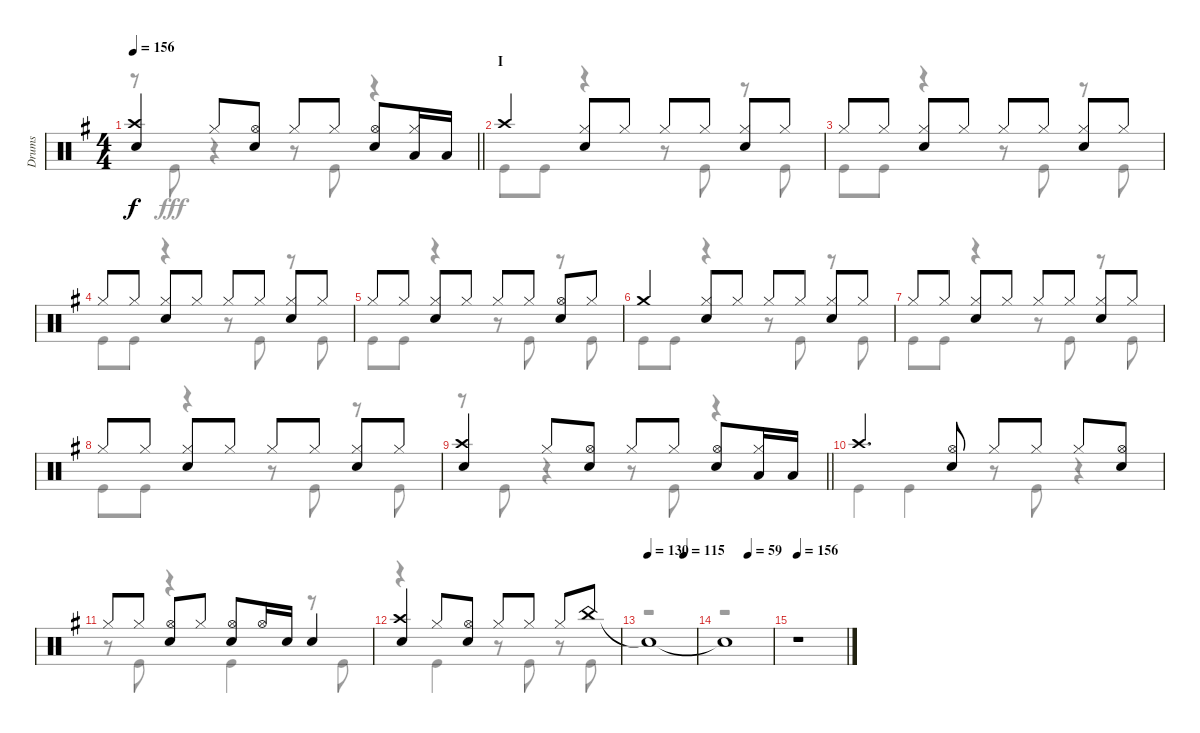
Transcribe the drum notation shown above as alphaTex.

\track ("Drums" "Drums") {instrument percussion}
\staff {score}
\articulation defaults
\voice
\ts (4 4)
\tempo 156
\clef neutral
\barLineRight lightlight
\ks g
("Crash high (hit)" "Snare (hit) 2").4{dy f} "Hi-Hat (closed)".8 ("Hi-Hat (open)" "Snare (hit) 2").8 "Hi-Hat (closed)".8 "Hi-Hat (closed)".8 ("Hi-Hat (open)" "Snare (hit) 2").8 ("Hi-Hat (closed)" "Low Tom (hit)").16 "Low Tom (hit)".16 |
\section ("" "I")
"Crash high (hit)".4 ("Hi-Hat (closed)" "Snare (hit) 2").8 "Hi-Hat (closed)".8 "Hi-Hat (closed)".8 "Hi-Hat (closed)".8 ("Hi-Hat (closed)" "Snare (hit) 2").8 "Hi-Hat (closed)".8 |
"Hi-Hat (closed)".8 "Hi-Hat (closed)".8 ("Hi-Hat (closed)" "Snare (hit) 2").8 "Hi-Hat (closed)".8 "Hi-Hat (closed)".8 "Hi-Hat (closed)".8 ("Hi-Hat (closed)" "Snare (hit) 2").8 "Hi-Hat (closed)".8 |
"Hi-Hat (closed)".8 "Hi-Hat (closed)".8 ("Hi-Hat (closed)" "Snare (hit) 2").8 "Hi-Hat (closed)".8 "Hi-Hat (closed)".8 "Hi-Hat (closed)".8 ("Hi-Hat (closed)" "Snare (hit) 2").8 "Hi-Hat (closed)".8 |
"Hi-Hat (closed)".8 "Hi-Hat (closed)".8 ("Hi-Hat (closed)" "Snare (hit) 2").8 "Hi-Hat (closed)".8 "Hi-Hat (closed)".8 "Hi-Hat (closed)".8 ("Hi-Hat (open)" "Snare (hit) 2").8 "Hi-Hat (closed)".8 |
"Crash medium (hit)".4 ("Hi-Hat (closed)" "Snare (hit) 2").8 "Hi-Hat (closed)".8 "Hi-Hat (closed)".8 "Hi-Hat (closed)".8 ("Hi-Hat (closed)" "Snare (hit) 2").8 "Hi-Hat (closed)".8 |
"Hi-Hat (closed)".8 "Hi-Hat (closed)".8 ("Hi-Hat (closed)" "Snare (hit) 2").8 "Hi-Hat (closed)".8 "Hi-Hat (closed)".8 "Hi-Hat (closed)".8 ("Hi-Hat (closed)" "Snare (hit) 2").8 "Hi-Hat (closed)".8 |
"Hi-Hat (closed)".8 "Hi-Hat (closed)".8 ("Hi-Hat (closed)" "Snare (hit) 2").8 "Hi-Hat (closed)".8 "Hi-Hat (closed)".8 "Hi-Hat (closed)".8 ("Hi-Hat (closed)" "Snare (hit) 2").8 "Hi-Hat (closed)".8 |
\barLineRight lightlight
("Crash high (hit)" "Snare (hit) 2").4 "Hi-Hat (closed)".8 ("Hi-Hat (open)" "Snare (hit) 2").8 "Hi-Hat (closed)".8 "Hi-Hat (closed)".8 ("Hi-Hat (open)" "Snare (hit) 2").8 ("Hi-Hat (closed)" "Low Tom (hit)").16 "Low Tom (hit)".16 |
"Crash high (hit)".4{d} ("Hi-Hat (open)" "Snare (hit) 2").8 "Hi-Hat (closed)".8 "Hi-Hat (closed)".8 "Hi-Hat (closed)".8 ("Hi-Hat (open)" "Snare (hit) 2").8 |
"Hi-Hat (closed)".8 "Hi-Hat (closed)".8 ("Hi-Hat (open)" "Snare (hit) 2").8 "Hi-Hat (closed)".8 ("Hi-Hat (open)" "Snare (hit) 2").8 "Hi-Hat (open)".16 "Snare (hit) 2".16 "Snare (hit) 2".4 |
("Crash high (hit)" "Snare (hit) 2").4 "Hi-Hat (closed)".8 ("Hi-Hat (open)" "Snare (hit) 2").8 "Hi-Hat (closed)".8 "Hi-Hat (closed)".8 "Hi-Hat (closed)".8 "China (hit)".8 |
\tempo 130
\tempo (115 0.75)
"Snare (hit)"{t}.1 |
\tempo (59 0.5)
"Snare (hit)"{t}.1{volume 0} |
\tempo 156
r.1
\voice
\clef neutral
\ottava regular
\simile none
\barLineRight lightlight
\ks g
r.8{dy fff} "Kick (hit)".8 r.4 r.8 "Kick (hit)".8 r.4 |
"Kick (hit)".8 "Kick (hit)".8 r.4 r.8 "Kick (hit)".8 r.8 "Kick (hit)".8 |
"Kick (hit)".8 "Kick (hit)".8 r.4 r.8 "Kick (hit)".8 r.8 "Kick (hit)".8 |
"Kick (hit)".8 "Kick (hit)".8 r.4 r.8 "Kick (hit)".8 r.8 "Kick (hit)".8 |
"Kick (hit)".8 "Kick (hit)".8 r.4 r.8 "Kick (hit)".8 r.8 "Kick (hit)".8 |
"Kick (hit)".8 "Kick (hit)".8 r.4 r.8 "Kick (hit)".8 r.8 "Kick (hit)".8 |
"Kick (hit)".8 "Kick (hit)".8 r.4 r.8 "Kick (hit)".8 r.8 "Kick (hit)".8 |
"Kick (hit)".8 "Kick (hit)".8 r.4 r.8 "Kick (hit)".8 r.8 "Kick (hit)".8 |
\barLineRight lightlight
r.8 "Kick (hit)".8 r.4 r.8 "Kick (hit)".8 r.4 |
"Kick (hit)".4 "Kick (hit)".4 r.8 "Kick (hit)".8 r.4 |
r.8 "Kick (hit)".8 r.4 "Kick (hit)".4 r.8 "Kick (hit)".8 |
r.4 "Kick (hit)".4 r.8 "Kick (hit)".8 r.8 "Kick (hit)".8 |
r.1 |
r.1 |
r.1
